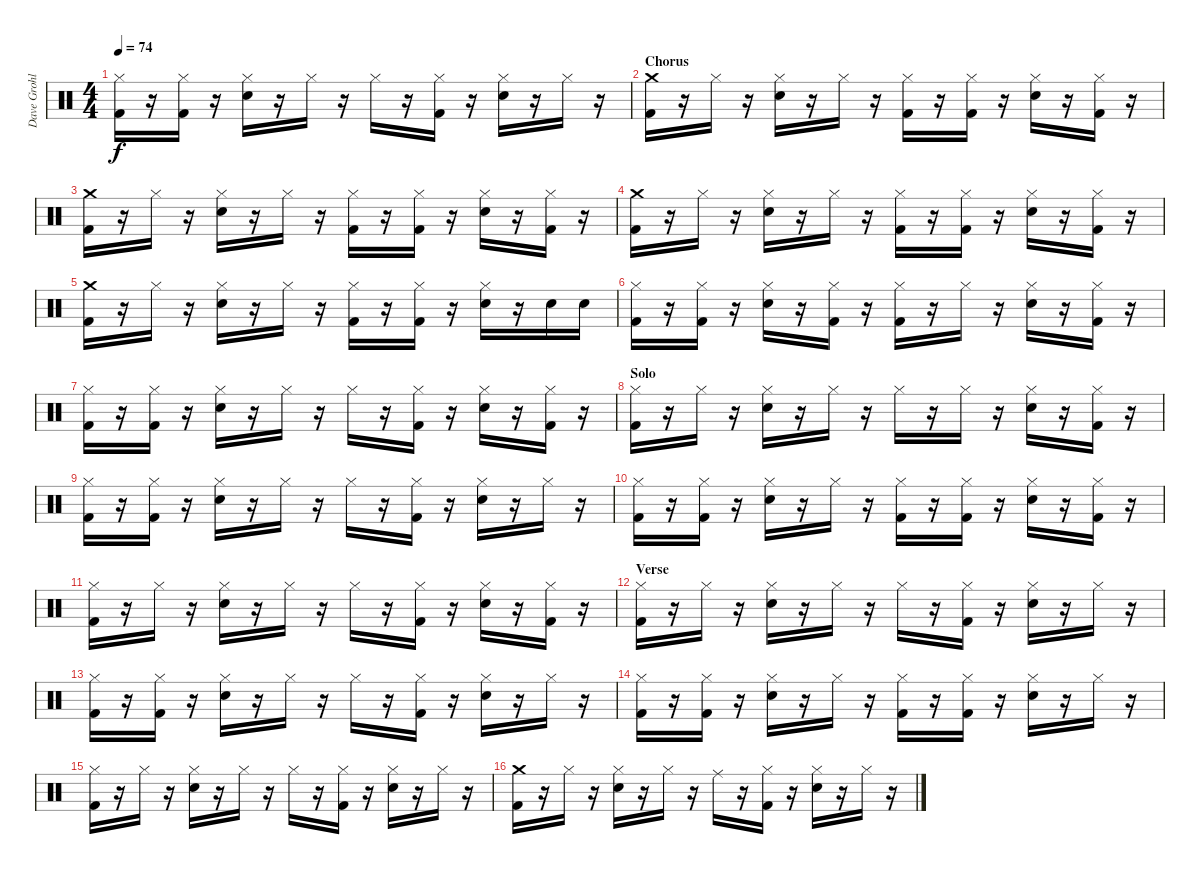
\track ("Dave Grohl" "Dave Grohl") {instrument percussion}
\staff {score}
\articulation defaults
\ts (4 4)
\tempo 74
\clef neutral
\ks c
("Hi-Hat (closed)" "Kick (hit) 2").16{dy f} r.16 ("Hi-Hat (closed)" "Kick (hit) 2").16 r.16 ("Hi-Hat (closed)" "Snare (hit) 2").16 r.16 "Hi-Hat (closed)".16 r.16 "Hi-Hat (closed)".16 r.16 ("Hi-Hat (closed)" "Kick (hit) 2").16 r.16 ("Hi-Hat (closed)" "Snare (hit) 2").16 r.16 "Hi-Hat (closed)".16 r.16 |
\section ("" "Chorus")
("Crash medium (hit)" "Kick (hit) 2").16 r.16 "Hi-Hat (closed)".16 r.16 ("Hi-Hat (closed)" "Snare (hit) 2").16 r.16 "Hi-Hat (closed)".16 r.16 ("Hi-Hat (closed)" "Kick (hit) 2").16 r.16 ("Hi-Hat (closed)" "Kick (hit) 2").16 r.16 ("Hi-Hat (closed)" "Snare (hit) 2").16 r.16 ("Hi-Hat (closed)" "Kick (hit) 2").16 r.16 |
("Crash medium (hit)" "Kick (hit) 2").16 r.16 "Hi-Hat (closed)".16 r.16 ("Hi-Hat (closed)" "Snare (hit) 2").16 r.16 "Hi-Hat (closed)".16 r.16 ("Hi-Hat (closed)" "Kick (hit) 2").16 r.16 ("Hi-Hat (closed)" "Kick (hit) 2").16 r.16 ("Hi-Hat (closed)" "Snare (hit) 2").16 r.16 ("Hi-Hat (closed)" "Kick (hit) 2").16 r.16 |
("Crash medium (hit)" "Kick (hit) 2").16 r.16 "Hi-Hat (closed)".16 r.16 ("Hi-Hat (closed)" "Snare (hit) 2").16 r.16 "Hi-Hat (closed)".16 r.16 ("Hi-Hat (closed)" "Kick (hit) 2").16 r.16 ("Hi-Hat (closed)" "Kick (hit) 2").16 r.16 ("Hi-Hat (closed)" "Snare (hit) 2").16 r.16 ("Hi-Hat (closed)" "Kick (hit) 2").16 r.16 |
("Crash medium (hit)" "Kick (hit) 2").16 r.16 "Hi-Hat (closed)".16 r.16 ("Hi-Hat (closed)" "Snare (hit) 2").16 r.16 "Hi-Hat (closed)".16 r.16 ("Hi-Hat (closed)" "Kick (hit) 2").16 r.16 ("Hi-Hat (closed)" "Kick (hit) 2").16 r.16 ("Hi-Hat (closed)" "Snare (hit) 2").16 r.16 "Snare (hit) 2".16 "Snare (hit) 2".16 |
("Hi-Hat (closed)" "Kick (hit) 2").16 r.16 ("Hi-Hat (closed)" "Kick (hit) 2").16 r.16 ("Hi-Hat (closed)" "Snare (hit) 2").16 r.16 ("Hi-Hat (closed)" "Kick (hit) 2").16 r.16 ("Hi-Hat (closed)" "Kick (hit) 2").16 r.16 "Hi-Hat (closed)".16 r.16 ("Hi-Hat (closed)" "Snare (hit) 2").16 r.16 ("Hi-Hat (closed)" "Kick (hit) 2").16 r.16 |
("Hi-Hat (closed)" "Kick (hit) 2").16 r.16 ("Hi-Hat (closed)" "Kick (hit) 2").16 r.16 ("Hi-Hat (closed)" "Snare (hit) 2").16 r.16 "Hi-Hat (closed)".16 r.16 "Hi-Hat (closed)".16 r.16 ("Hi-Hat (closed)" "Kick (hit) 2").16 r.16 ("Hi-Hat (closed)" "Snare (hit) 2").16 r.16 ("Hi-Hat (closed)" "Kick (hit) 2").16 r.16 |
\section ("" "Solo")
("Hi-Hat (closed)" "Kick (hit) 2").16 r.16 "Hi-Hat (closed)".16 r.16 ("Hi-Hat (closed)" "Snare (hit) 2").16 r.16 "Hi-Hat (closed)".16 r.16 "Hi-Hat (closed)".16 r.16 "Hi-Hat (closed)".16 r.16 ("Hi-Hat (closed)" "Snare (hit) 2").16 r.16 ("Hi-Hat (closed)" "Kick (hit) 2").16 r.16 |
("Hi-Hat (closed)" "Kick (hit) 2").16 r.16 ("Hi-Hat (closed)" "Kick (hit) 2").16 r.16 ("Hi-Hat (closed)" "Snare (hit) 2").16 r.16 "Hi-Hat (closed)".16 r.16 "Hi-Hat (closed)".16 r.16 ("Hi-Hat (closed)" "Kick (hit) 2").16 r.16 ("Hi-Hat (closed)" "Snare (hit) 2").16 r.16 "Hi-Hat (closed)".16 r.16 |
("Hi-Hat (closed)" "Kick (hit) 2").16 r.16 ("Hi-Hat (closed)" "Kick (hit) 2").16 r.16 ("Hi-Hat (closed)" "Snare (hit) 2").16 r.16 "Hi-Hat (closed)".16 r.16 ("Hi-Hat (closed)" "Kick (hit) 2").16 r.16 ("Hi-Hat (closed)" "Kick (hit) 2").16 r.16 ("Hi-Hat (closed)" "Snare (hit) 2").16 r.16 ("Hi-Hat (closed)" "Kick (hit) 2").16 r.16 |
("Hi-Hat (closed)" "Kick (hit) 2").16 r.16 "Hi-Hat (closed)".16 r.16 ("Hi-Hat (closed)" "Snare (hit) 2").16 r.16 "Hi-Hat (closed)".16 r.16 "Hi-Hat (closed)".16 r.16 ("Hi-Hat (closed)" "Kick (hit) 2").16 r.16 ("Hi-Hat (closed)" "Snare (hit) 2").16 r.16 ("Hi-Hat (closed)" "Kick (hit) 2").16 r.16 |
\section ("" "Verse")
("Hi-Hat (closed)" "Kick (hit) 2").16 r.16 "Hi-Hat (closed)".16 r.16 ("Hi-Hat (closed)" "Snare (hit) 2").16 r.16 "Hi-Hat (closed)".16 r.16 "Hi-Hat (closed)".16 r.16 ("Hi-Hat (closed)" "Kick (hit) 2").16 r.16 ("Hi-Hat (closed)" "Snare (hit) 2").16 r.16 "Hi-Hat (closed)".16 r.16 |
("Hi-Hat (closed)" "Kick (hit) 2").16 r.16 ("Hi-Hat (closed)" "Kick (hit) 2").16 r.16 ("Hi-Hat (closed)" "Snare (hit) 2").16 r.16 "Hi-Hat (closed)".16 r.16 "Hi-Hat (closed)".16 r.16 ("Hi-Hat (closed)" "Kick (hit) 2").16 r.16 ("Hi-Hat (closed)" "Snare (hit) 2").16 r.16 "Hi-Hat (closed)".16 r.16 |
("Hi-Hat (closed)" "Kick (hit) 2").16 r.16 ("Hi-Hat (closed)" "Kick (hit) 2").16 r.16 ("Hi-Hat (closed)" "Snare (hit) 2").16 r.16 "Hi-Hat (closed)".16 r.16 ("Hi-Hat (closed)" "Kick (hit) 2").16 r.16 ("Hi-Hat (closed)" "Kick (hit) 2").16 r.16 ("Hi-Hat (closed)" "Snare (hit) 2").16 r.16 "Hi-Hat (closed)".16 r.16 |
("Hi-Hat (closed)" "Kick (hit) 2").16 r.16 "Hi-Hat (closed)".16 r.16 ("Hi-Hat (closed)" "Snare (hit) 2").16 r.16 "Hi-Hat (closed)".16 r.16 "Hi-Hat (closed)".16 r.16 ("Hi-Hat (closed)" "Kick (hit) 2").16 r.16 ("Hi-Hat (closed)" "Snare (hit) 2").16 r.16 "Hi-Hat (closed)".16 r.16 |
("Crash medium (hit)" "Kick (hit) 2").16 r.16 "Hi-Hat (closed)".16 r.16 ("Hi-Hat (closed)" "Snare (hit) 2").16 r.16 "Hi-Hat (closed)".16 r.16 "Ride (middle)".16 r.16 ("Hi-Hat (closed)" "Kick (hit) 2").16 r.16 ("Hi-Hat (closed)" "Snare (hit) 2").16 r.16 "Hi-Hat (closed)".16 r.16
